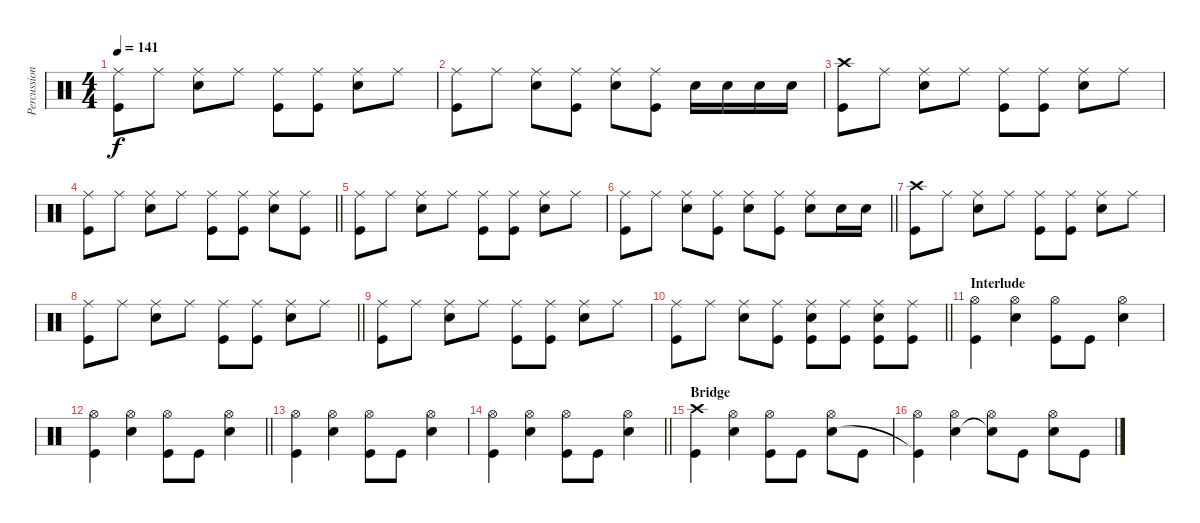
\track ("Percussion" "Percussion") {instrument percussion}
\staff {score}
\articulation defaults
\ts (4 4)
\tempo 141
\clef neutral
\ks c
("Ride (middle)" "Kick (hit)").8{dy f} "Ride (middle)".8 ("Ride (middle)" "Snare (hit) 2").8 "Ride (middle)".8 ("Ride (middle)" "Kick (hit)").8 ("Ride (middle)" "Kick (hit)").8 ("Ride (middle)" "Snare (hit) 2").8 "Ride (middle)".8 |
("Ride (middle)" "Kick (hit)").8 "Ride (middle)".8 ("Ride (middle)" "Snare (hit) 2").8 ("Ride (middle)" "Kick (hit)").8 ("Ride (middle)" "Snare (hit) 2").8 ("Ride (middle)" "Kick (hit)").8 "Snare (hit) 2".16 "Snare (hit) 2".16 "Snare (hit) 2".16 "Snare (hit) 2".16 |
("Crash high (hit)" "Kick (hit)").8 "Ride (middle)".8 ("Ride (middle)" "Snare (hit) 2").8 "Ride (middle)".8 ("Ride (middle)" "Kick (hit)").8 ("Ride (middle)" "Kick (hit)").8 ("Ride (middle)" "Snare (hit) 2").8 "Ride (middle)".8 |
\barLineRight lightlight
("Ride (middle)" "Kick (hit)").8 "Ride (middle)".8 ("Ride (middle)" "Snare (hit) 2").8 "Ride (middle)".8 ("Ride (middle)" "Kick (hit)").8 ("Ride (middle)" "Kick (hit)").8 ("Ride (middle)" "Snare (hit) 2").8 ("Ride (middle)" "Kick (hit)").8 |
("Ride (middle)" "Kick (hit)").8 "Ride (middle)".8 ("Ride (middle)" "Snare (hit) 2").8 "Ride (middle)".8 ("Ride (middle)" "Kick (hit)").8 ("Ride (middle)" "Kick (hit)").8 ("Ride (middle)" "Snare (hit) 2").8 "Ride (middle)".8 |
\barLineRight lightlight
("Ride (middle)" "Kick (hit)").8 "Ride (middle)".8 ("Ride (middle)" "Snare (hit) 2").8 ("Ride (middle)" "Kick (hit)").8 ("Ride (middle)" "Snare (hit) 2").8 ("Ride (middle)" "Kick (hit)").8 ("Ride (middle)" "Snare (hit) 2").8 "Snare (hit) 2".16 "Snare (hit) 2".16 |
("Crash high (hit)" "Kick (hit)").8 "Ride (middle)".8 ("Ride (middle)" "Snare (hit) 2").8 "Ride (middle)".8 ("Ride (middle)" "Kick (hit)").8 ("Ride (middle)" "Kick (hit)").8 ("Ride (middle)" "Snare (hit) 2").8 "Ride (middle)".8 |
\barLineRight lightlight
("Ride (middle)" "Kick (hit)").8 "Ride (middle)".8 ("Ride (middle)" "Snare (hit) 2").8 "Ride (middle)".8 ("Ride (middle)" "Kick (hit)").8 ("Ride (middle)" "Kick (hit)").8 ("Ride (middle)" "Snare (hit) 2").8 "Ride (middle)".8 |
("Ride (middle)" "Kick (hit)").8 "Ride (middle)".8 ("Ride (middle)" "Snare (hit) 2").8 "Ride (middle)".8 ("Ride (middle)" "Kick (hit)").8 ("Ride (middle)" "Kick (hit)").8 ("Ride (middle)" "Snare (hit) 2").8 "Ride (middle)".8 |
\barLineRight lightlight
("Ride (middle)" "Kick (hit)").8 "Ride (middle)".8 ("Ride (middle)" "Snare (hit) 2").8 ("Ride (middle)" "Kick (hit)").8 ("Ride (middle)" "Snare (hit) 2" "Kick (hit)").8 ("Ride (middle)" "Kick (hit)").8 ("Ride (middle)" "Snare (hit) 2" "Kick (hit)").8 ("Ride (middle)" "Kick (hit)").8 |
\section ("" "Interlude")
("Hi-Hat (open)" "Kick (hit)").4 ("Hi-Hat (open)" "Snare (hit) 2").4 ("Hi-Hat (open)" "Kick (hit)").8 "Kick (hit)".8 ("Hi-Hat (open)" "Snare (hit) 2").4 |
\barLineRight lightlight
("Hi-Hat (open)" "Kick (hit)").4 ("Hi-Hat (open)" "Snare (hit) 2").4 ("Hi-Hat (open)" "Kick (hit)").8 "Kick (hit)".8 ("Hi-Hat (open)" "Snare (hit) 2").4 |
("Hi-Hat (open)" "Kick (hit)").4 ("Hi-Hat (open)" "Snare (hit) 2").4 ("Hi-Hat (open)" "Kick (hit)").8 "Kick (hit)".8 ("Hi-Hat (open)" "Snare (hit) 2").4 |
\barLineRight lightlight
("Hi-Hat (open)" "Kick (hit)").4 ("Hi-Hat (open)" "Snare (hit) 2").4 ("Hi-Hat (open)" "Kick (hit)").8 "Kick (hit)".8 ("Hi-Hat (open)" "Snare (hit) 2").4 |
\section ("" "Bridge")
("Kick (hit)" "Crash high (hit)").4 ("Electric Snare (hit)" "Hi-Hat (open)").4 ("Hi-Hat (open)" "Kick (hit)").8 "Kick (hit)".8 ("Hi-Hat (open)" "Snare (hit) 2").8 "Kick (hit)".8 |
("Hi-Hat (open)" "Kick (hit)"{t}).4 ("Hi-Hat (open)" "Snare (hit) 2").4 ("Hi-Hat (open)" "Snare (hit) 2"{t}).8 "Kick (hit)".8 ("Hi-Hat (open)" "Snare (hit) 2").8 "Kick (hit)".8
